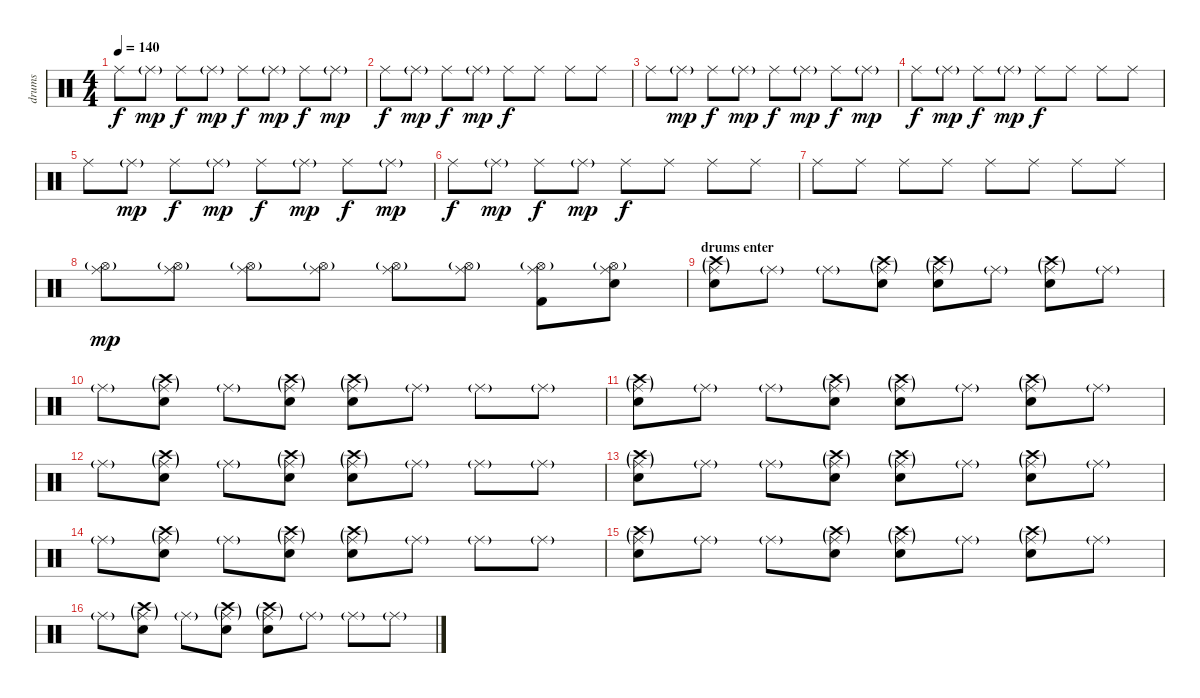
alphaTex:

\track ("drums" "drums") {instrument percussion}
\staff {score}
\articulation defaults
\ts (4 4)
\tempo 140
\clef neutral
\ks c "Ride (middle)".8{dy f volume 9} "Ride (middle)"{g}.8{dy mp} "Ride (middle)".8{dy f} "Ride (middle)"{g}.8{dy mp} "Ride (middle)".8{dy f} "Ride (middle)"{g}.8{dy mp} "Ride (middle)".8{dy f} "Ride (middle)"{g}.8{dy mp}
|
"Ride (middle)".8{dy f} "Ride (middle)"{g}.8{dy mp} "Ride (middle)".8{dy f} "Ride (middle)"{g}.8{dy mp} "Ride (middle)".8{dy f} "Ride (middle)".8 "Ride (middle)".8 "Ride (middle)".8 |
"Ride (middle)".8 "Ride (middle)"{g}.8{dy mp} "Ride (middle)".8{dy f} "Ride (middle)"{g}.8{dy mp} "Ride (middle)".8{dy f} "Ride (middle)"{g}.8{dy mp} "Ride (middle)".8{dy f} "Ride (middle)"{g}.8{dy mp} |
"Ride (middle)".8{dy f} "Ride (middle)"{g}.8{dy mp} "Ride (middle)".8{dy f} "Ride (middle)"{g}.8{dy mp} "Ride (middle)".8{dy f} "Ride (middle)".8 "Ride (middle)".8 "Ride (middle)".8 |
"Ride (middle)".8{volume 12} "Ride (middle)"{g}.8{dy mp} "Ride (middle)".8{dy f} "Ride (middle)"{g}.8{dy mp} "Ride (middle)".8{dy f} "Ride (middle)"{g}.8{dy mp} "Ride (middle)".8{dy f} "Ride (middle)"{g}.8{dy mp} |
"Ride (middle)".8{dy f} "Ride (middle)"{g}.8{dy mp} "Ride (middle)".8{dy f} "Ride (middle)"{g}.8{dy mp} "Ride (middle)".8{dy f} "Ride (middle)".8 "Ride (middle)".8 "Ride (middle)".8 |
"Ride (middle)".8 "Ride (middle)".8 "Ride (middle)".8 "Ride (middle)".8 "Ride (middle)".8 "Ride (middle)".8 "Ride (middle)".8 "Ride (middle)".8 |
("Ride (middle)" "Hi-Hat (open)"{g}).8{dy mp} ("Ride (middle)" "Hi-Hat (open)"{g}).8 ("Ride (middle)" "Hi-Hat (open)"{g}).8 ("Ride (middle)" "Hi-Hat (open)"{g}).8 ("Ride (middle)" "Hi-Hat (open)"{g}).8 ("Ride (middle)" "Hi-Hat (open)"{g}).8 ("Kick (hit) 2" "Ride (middle)" "Hi-Hat (open)"{g}).8 ("Electric Snare (hit)" "Ride (middle)" "Hi-Hat (open)"{g}).8 |
\section ("" "drums enter")
("Electric Snare (hit)" "Ride (middle)"{g} "Crash high (hit)"{g}).8 "Ride (middle)"{g}.8 "Ride (middle)"{g}.8 ("Electric Snare (hit)" "Ride (middle)"{g} "Crash high (hit)"{g}).8 ("Electric Snare (hit)" "Ride (middle)"{g} "Crash high (hit)"{g}).8 "Ride (middle)"{g}.8 ("Electric Snare (hit)" "Ride (middle)"{g} "Crash high (hit)"{g}).8 "Ride (middle)"{g}.8 |
"Ride (middle)"{g}.8 ("Electric Snare (hit)" "Ride (middle)"{g} "Crash high (hit)"{g}).8 "Ride (middle)"{g}.8 ("Electric Snare (hit)" "Ride (middle)"{g} "Crash high (hit)"{g}).8 ("Electric Snare (hit)" "Ride (middle)"{g} "Crash high (hit)"{g}).8 "Ride (middle)"{g}.8 "Ride (middle)"{g}.8 "Ride (middle)"{g}.8 |
("Electric Snare (hit)" "Ride (middle)"{g} "Crash high (hit)"{g}).8 "Ride (middle)"{g}.8 "Ride (middle)"{g}.8 ("Electric Snare (hit)" "Ride (middle)"{g} "Crash high (hit)"{g}).8 ("Electric Snare (hit)" "Ride (middle)"{g} "Crash high (hit)"{g}).8 "Ride (middle)"{g}.8 ("Electric Snare (hit)" "Ride (middle)"{g} "Crash high (hit)"{g}).8 "Ride (middle)"{g}.8 |
"Ride (middle)"{g}.8 ("Electric Snare (hit)" "Ride (middle)"{g} "Crash high (hit)"{g}).8 "Ride (middle)"{g}.8 ("Electric Snare (hit)" "Ride (middle)"{g} "Crash high (hit)"{g}).8 ("Electric Snare (hit)" "Ride (middle)"{g} "Crash high (hit)"{g}).8 "Ride (middle)"{g}.8 "Ride (middle)"{g}.8 "Ride (middle)"{g}.8 |
("Electric Snare (hit)" "Ride (middle)"{g} "Crash high (hit)"{g}).8 "Ride (middle)"{g}.8 "Ride (middle)"{g}.8 ("Electric Snare (hit)" "Ride (middle)"{g} "Crash high (hit)"{g}).8 ("Electric Snare (hit)" "Ride (middle)"{g} "Crash high (hit)"{g}).8 "Ride (middle)"{g}.8 ("Electric Snare (hit)" "Ride (middle)"{g} "Crash high (hit)"{g}).8 "Ride (middle)"{g}.8 |
"Ride (middle)"{g}.8 ("Electric Snare (hit)" "Ride (middle)"{g} "Crash high (hit)"{g}).8 "Ride (middle)"{g}.8 ("Electric Snare (hit)" "Ride (middle)"{g} "Crash high (hit)"{g}).8 ("Electric Snare (hit)" "Ride (middle)"{g} "Crash high (hit)"{g}).8 "Ride (middle)"{g}.8 "Ride (middle)"{g}.8 "Ride (middle)"{g}.8 |
("Electric Snare (hit)" "Ride (middle)"{g} "Crash high (hit)"{g}).8 "Ride (middle)"{g}.8 "Ride (middle)"{g}.8 ("Electric Snare (hit)" "Ride (middle)"{g} "Crash high (hit)"{g}).8 ("Electric Snare (hit)" "Ride (middle)"{g} "Crash high (hit)"{g}).8 "Ride (middle)"{g}.8 ("Electric Snare (hit)" "Ride (middle)"{g} "Crash high (hit)"{g}).8 "Ride (middle)"{g}.8 |
"Ride (middle)"{g}.8 ("Electric Snare (hit)" "Ride (middle)"{g} "Crash high (hit)"{g}).8 "Ride (middle)"{g}.8 ("Electric Snare (hit)" "Ride (middle)"{g} "Crash high (hit)"{g}).8 ("Electric Snare (hit)" "Ride (middle)"{g} "Crash high (hit)"{g}).8 "Ride (middle)"{g}.8 "Ride (middle)"{g}.8 "Ride (middle)"{g}.8
